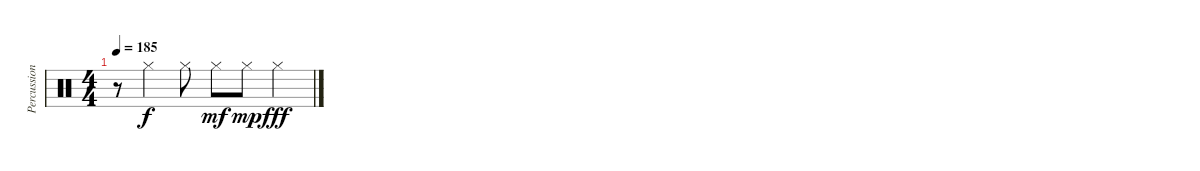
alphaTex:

\track ("Percussion" "Percussion") {solo instrument percussion}
\staff {score}
\articulation defaults
\ts (4 4)
\tempo 185
\clef neutral
\ks c
r.8{dy f} "Hi-Hat (closed)".4 "Hi-Hat (closed)".8 "Hi-Hat (closed)".8{dy mf} "Hi-Hat (closed)".8{dy mp} "Hi-Hat (closed)".4{dy fff}
